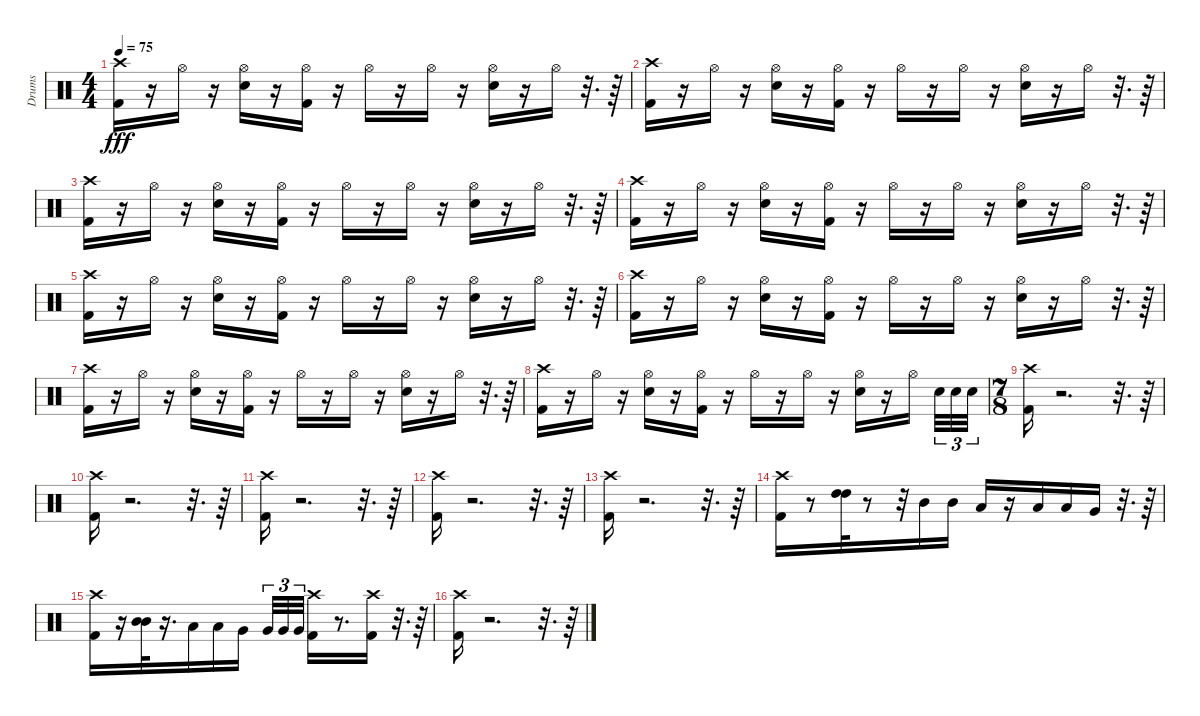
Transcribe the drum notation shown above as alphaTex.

\track ("Drums" "Drums") {instrument percussion}
\staff {score}
\articulation defaults
\ts (4 4)
\tempo 75
\clef neutral
\ks c
("Crash high (hit)" "Kick (hit) 2").16{dy fff} r.16 "Hi-Hat (open)".16 r.16 ("Hi-Hat (open)" "Electric Snare (hit)").16 r.16 ("Hi-Hat (open)" "Kick (hit) 2").16 r.16 "Hi-Hat (open)".16 r.16 "Hi-Hat (open)".16 r.16 ("Electric Snare (hit)" "Hi-Hat (open)").16 r.16 "Hi-Hat (open)".16 r.32{d} r.64 |
("Kick (hit) 2" "Crash high (hit)").16 r.16 "Hi-Hat (open)".16 r.16 ("Electric Snare (hit)" "Hi-Hat (open)").16 r.16 ("Kick (hit) 2" "Hi-Hat (open)").16 r.16 "Hi-Hat (open)".16 r.16 "Hi-Hat (open)".16 r.16 ("Hi-Hat (open)" "Electric Snare (hit)").16 r.16 "Hi-Hat (open)".16 r.32{d} r.64 |
("Kick (hit) 2" "Crash high (hit)").16 r.16 "Hi-Hat (open)".16 r.16 ("Electric Snare (hit)" "Hi-Hat (open)").16 r.16 ("Kick (hit) 2" "Hi-Hat (open)").16 r.16 "Hi-Hat (open)".16 r.16 "Hi-Hat (open)".16 r.16 ("Hi-Hat (open)" "Electric Snare (hit)").16 r.16 "Hi-Hat (open)".16 r.32{d} r.64 |
("Kick (hit) 2" "Crash high (hit)").16 r.16 "Hi-Hat (open)".16 r.16 ("Electric Snare (hit)" "Hi-Hat (open)").16 r.16 ("Kick (hit) 2" "Hi-Hat (open)").16 r.16 "Hi-Hat (open)".16 r.16 "Hi-Hat (open)".16 r.16 ("Hi-Hat (open)" "Electric Snare (hit)").16 r.16 "Hi-Hat (open)".16 r.32{d} r.64 |
("Kick (hit) 2" "Crash high (hit)").16 r.16 "Hi-Hat (open)".16 r.16 ("Electric Snare (hit)" "Hi-Hat (open)").16 r.16 ("Kick (hit) 2" "Hi-Hat (open)").16 r.16 "Hi-Hat (open)".16 r.16 "Hi-Hat (open)".16 r.16 ("Hi-Hat (open)" "Electric Snare (hit)").16 r.16 "Hi-Hat (open)".16 r.32{d} r.64 |
("Crash high (hit)" "Kick (hit) 2").16 r.16 "Hi-Hat (open)".16 r.16 ("Hi-Hat (open)" "Electric Snare (hit)").16 r.16 ("Hi-Hat (open)" "Kick (hit) 2").16 r.16 "Hi-Hat (open)".16 r.16 "Hi-Hat (open)".16 r.16 ("Electric Snare (hit)" "Hi-Hat (open)").16 r.16 "Hi-Hat (open)".16 r.32{d} r.64 |
("Crash high (hit)" "Kick (hit) 2").16 r.16 "Hi-Hat (open)".16 r.16 ("Hi-Hat (open)" "Electric Snare (hit)").16 r.16 ("Hi-Hat (open)" "Kick (hit) 2").16 r.16 "Hi-Hat (open)".16 r.16 "Hi-Hat (open)".16 r.16 ("Electric Snare (hit)" "Hi-Hat (open)").16 r.16 "Hi-Hat (open)".16 r.32{d} r.64 |
("Crash high (hit)" "Kick (hit) 2").16 r.16 "Hi-Hat (open)".16 r.16 ("Hi-Hat (open)" "Electric Snare (hit)").16 r.16 ("Hi-Hat (open)" "Kick (hit) 2").16 r.16 "Hi-Hat (open)".16 r.16 "Hi-Hat (open)".16 r.16 ("Electric Snare (hit)" "Hi-Hat (open)").16 r.16 "Hi-Hat (open)".16{beam splitsecondary} "Electric Snare (hit)".32{tu (3 2)} "Electric Snare (hit)".32{tu (3 2)} "Electric Snare (hit)".32{tu (3 2)} |
\ts (7 8)
("Crash high (hit)" "Kick (hit) 2").16 r.2{d} r.32{d} r.64 |
("Crash high (hit)" "Kick (hit) 2").16 r.2{d} r.32{d} r.64 |
("Crash high (hit)" "Kick (hit) 2").16 r.2{d} r.32{d} r.64 |
("Crash high (hit)" "Kick (hit) 2").16 r.2{d} r.32{d} r.64 |
("Kick (hit) 2" "Crash high (hit)").16 r.2{d} r.32{d} r.64 |
("Kick (hit) 2" "Crash high (hit)").16 r.8 ("High Tom (hit)" "High Tom (hit)").32 r.8 r.32 "Mid Tom (hit)".16 "Mid Tom (hit)".16 "Low Tom (hit)".16 r.16 "Low Tom (hit)".16 "Low Tom (hit)".16 "Very Low Tom (hit)".16 r.32{d} r.64 |
("Kick (hit) 2" "Crash high (hit)").16 r.16 ("Mid Tom (hit)" "Mid Tom (hit)").32 r.16{d} "Low Tom (hit)".16 "Low Tom (hit)".16 "Very Low Tom (hit)".16{beam splitsecondary} "Very Low Tom (hit)".32{tu (3 2)} "Very Low Tom (hit)".32{tu (3 2)} "Very Low Tom (hit)".32{tu (3 2)} ("Kick (hit) 2" "Crash high (hit)").16 r.8{d} ("Kick (hit) 2" "Crash high (hit)").16 r.32{d} r.64 |
("Crash high (hit)" "Kick (hit) 2").16 r.2{d} r.32{d} r.64
